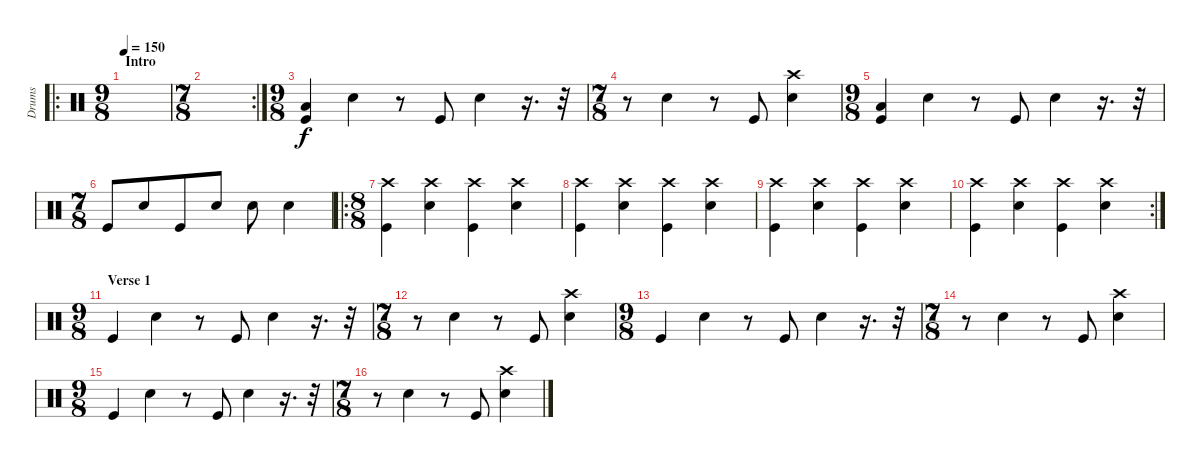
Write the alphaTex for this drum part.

\track ("Drums" "Drums") {instrument percussion}
\staff {score}
\articulation defaults
\ro
\ts (9 8)
\section ("" "Intro")
\tempo 150
\clef neutral
\ks c
|
\rc 2
\ts (7 8)
|
\ts (9 8)
("Low Floor Tom (hit)" "Kick (hit)").4 "Snare (hit) 2".4 r.8 "Kick (hit)".8 "Snare (hit) 2".4 r.16{d} r.32 |
\ts (7 8)
r.8 "Snare (hit) 2".4 r.8 "Kick (hit)".8 ("Crash high (hit)" "Snare (hit) 2").4 |
\ts (9 8)
("Low Floor Tom (hit)" "Kick (hit)").4 "Snare (hit) 2".4 r.8 "Kick (hit)".8 "Snare (hit) 2".4 r.16{d} r.32 |
\ts (7 8)
"Kick (hit)".8 "Snare (hit) 2".8 "Kick (hit)".8 "Snare (hit) 2".8 "Snare (hit) 2".8 "Snare (hit) 2".4 |
\ro
\ts (8 8)
("Crash high (hit)" "Kick (hit)").4 ("Crash high (hit)" "Snare (hit) 2").4 ("Crash high (hit)" "Kick (hit)").4 ("Crash high (hit)" "Snare (hit) 2").4 |
("Crash high (hit)" "Kick (hit)").4 ("Crash high (hit)" "Snare (hit) 2").4 ("Crash high (hit)" "Kick (hit)").4 ("Crash high (hit)" "Snare (hit) 2").4 |
("Crash high (hit)" "Kick (hit)").4 ("Crash high (hit)" "Snare (hit) 2").4 ("Crash high (hit)" "Kick (hit)").4 ("Crash high (hit)" "Snare (hit) 2").4 |
\rc 2
("Crash high (hit)" "Kick (hit)").4 ("Crash high (hit)" "Snare (hit) 2").4 ("Crash high (hit)" "Kick (hit)").4 ("Crash high (hit)" "Snare (hit) 2").4 |
\ts (9 8)
\section ("" "Verse 1")
"Kick (hit)".4 "Snare (hit) 2".4 r.8 "Kick (hit)".8 "Snare (hit) 2".4 r.16{d} r.32 |
\ts (7 8)
r.8 "Snare (hit) 2".4 r.8 "Kick (hit)".8 ("Crash high (hit)" "Snare (hit) 2").4 |
\ts (9 8)
"Kick (hit)".4 "Snare (hit) 2".4 r.8 "Kick (hit)".8 "Snare (hit) 2".4 r.16{d} r.32 |
\ts (7 8)
r.8 "Snare (hit) 2".4 r.8 "Kick (hit)".8 ("Crash high (hit)" "Snare (hit) 2").4 |
\ts (9 8)
"Kick (hit)".4 "Snare (hit) 2".4 r.8 "Kick (hit)".8 "Snare (hit) 2".4 r.16{d} r.32 |
\ts (7 8)
r.8 "Snare (hit) 2".4 r.8 "Kick (hit)".8 ("Crash high (hit)" "Snare (hit) 2").4
